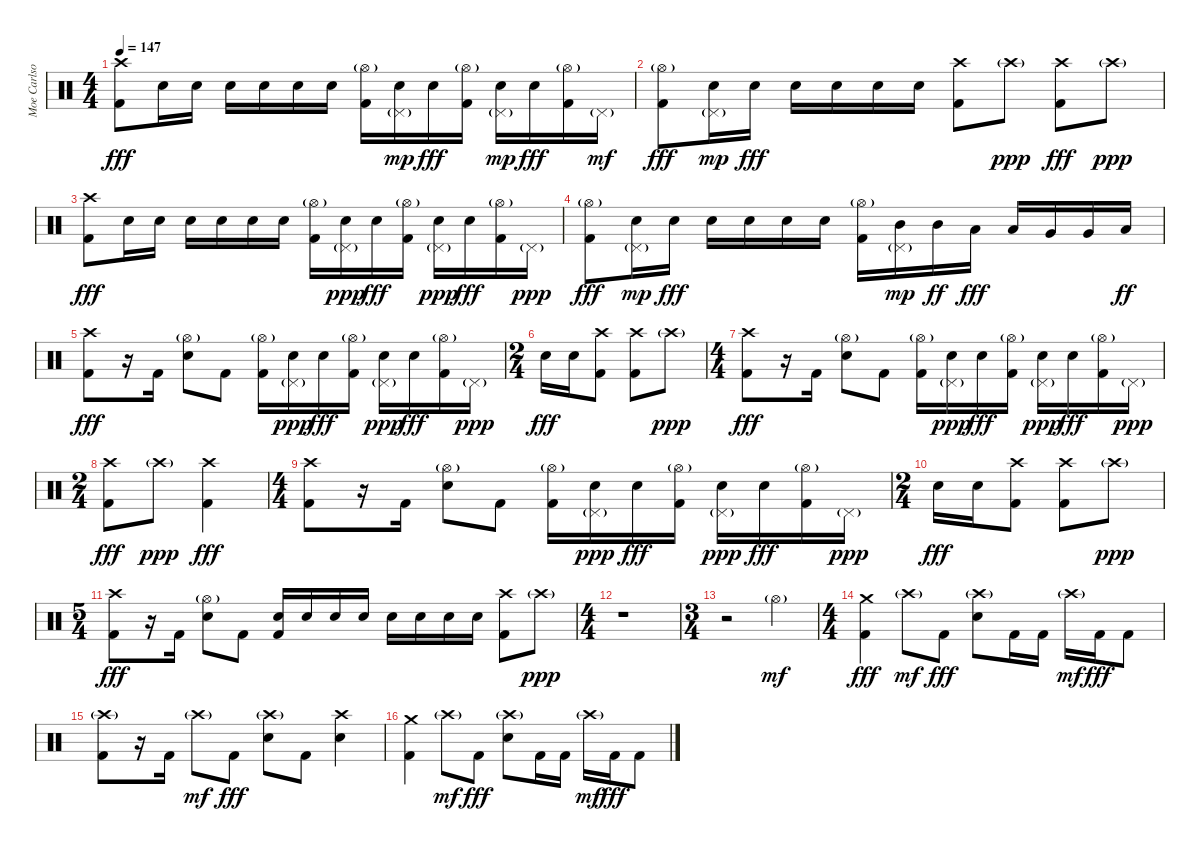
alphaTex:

\track ("Moe Carlson" "Moe Carlso") {instrument percussion}
\staff {score}
\articulation defaults
\ts (4 4)
\tempo 147
\clef neutral
\ks c
("Crash high (hit)" "Kick (hit) 2").8{dy fff} "Electric Snare (hit)".16 "Electric Snare (hit)".16 "Electric Snare (hit)".16 "Electric Snare (hit)".16 "Electric Snare (hit)".16 "Electric Snare (hit)".16 ("Hi-Hat (open)"{g} "Kick (hit) 2").16 ("Electric Snare (hit)" "Pedal Hi-Hat (hit)"{g}).16{dy mp} "Electric Snare (hit)".16{dy fff} ("Hi-Hat (open)"{g} "Kick (hit) 2").16 ("Electric Snare (hit)" "Pedal Hi-Hat (hit)"{g}).16{dy mp} "Electric Snare (hit)".16{dy fff} ("Hi-Hat (open)"{g} "Kick (hit) 2").16 "Pedal Hi-Hat (hit)"{g}.16{dy mf} |
("Hi-Hat (open)"{g} "Kick (hit) 2").8{dy fff} ("Electric Snare (hit)" "Pedal Hi-Hat (hit)"{g}).16{dy mp} "Electric Snare (hit)".16{dy fff} "Electric Snare (hit)".16 "Electric Snare (hit)".16 "Electric Snare (hit)".16 "Electric Snare (hit)".16 ("Crash high (hit)" "Kick (hit) 2").8 "Crash high (hit)"{g}.8{dy ppp} ("Crash high (hit)" "Kick (hit) 2").8{dy fff} "Crash high (hit)"{g}.8{dy ppp} |
("Crash high (hit)" "Kick (hit) 2").8{dy fff} "Electric Snare (hit)".16 "Electric Snare (hit)".16 "Electric Snare (hit)".16 "Electric Snare (hit)".16 "Electric Snare (hit)".16 "Electric Snare (hit)".16 ("Hi-Hat (open)"{g} "Kick (hit) 2").16 ("Electric Snare (hit)" "Pedal Hi-Hat (hit)"{g}).16{dy ppp} "Electric Snare (hit)".16{dy fff} ("Hi-Hat (open)"{g} "Kick (hit) 2").16 ("Electric Snare (hit)" "Pedal Hi-Hat (hit)"{g}).16{dy ppp} "Electric Snare (hit)".16{dy fff} ("Hi-Hat (open)"{g} "Kick (hit) 2").16 "Pedal Hi-Hat (hit)"{g}.16{dy ppp} |
("Hi-Hat (open)"{g} "Kick (hit) 2").8{dy fff} ("Electric Snare (hit)" "Pedal Hi-Hat (hit)"{g}).16{dy mp} "Electric Snare (hit)".16{dy fff} "Electric Snare (hit)".16 "Electric Snare (hit)".16 "Electric Snare (hit)".16 "Electric Snare (hit)".16 ("Hi-Hat (open)"{g} "Kick (hit) 2").16 ("Mid Tom (hit)" "Pedal Hi-Hat (hit)"{g}).16{dy mp} "Mid Tom (hit)".16{dy ff} "Low Tom (hit)".16{dy fff} "Low Tom (hit)".16 "Very Low Tom (hit)".16 "Very Low Tom (hit)".16 "Low Floor Tom (hit)".16{dy ff} |
("Crash high (hit)" "Kick (hit) 2").8{dy fff} r.16 "Kick (hit) 2".16 ("Hi-Hat (open)"{g} "Electric Snare (hit)").8 "Kick (hit) 2".8 ("Hi-Hat (open)"{g} "Kick (hit) 2").16 ("Electric Snare (hit)" "Pedal Hi-Hat (hit)"{g}).16{dy ppp} "Electric Snare (hit)".16{dy fff} ("Hi-Hat (open)"{g} "Kick (hit) 2").16 ("Electric Snare (hit)" "Pedal Hi-Hat (hit)"{g}).16{dy ppp} "Electric Snare (hit)".16{dy fff} ("Hi-Hat (open)"{g} "Kick (hit) 2").16 "Pedal Hi-Hat (hit)"{g}.16{dy ppp} |
\ts (2 4)
"Electric Snare (hit)".16{dy fff} "Electric Snare (hit)".16 ("Crash high (hit)" "Kick (hit) 2").8 ("Crash high (hit)" "Kick (hit) 2").8 "Crash high (hit)"{g}.8{dy ppp} |
\ts (4 4)
("Crash high (hit)" "Kick (hit) 2").8{dy fff} r.16 "Kick (hit) 2".16 ("Hi-Hat (open)"{g} "Electric Snare (hit)").8 "Kick (hit) 2".8 ("Hi-Hat (open)"{g} "Kick (hit) 2").16 ("Electric Snare (hit)" "Pedal Hi-Hat (hit)"{g}).16{dy ppp} "Electric Snare (hit)".16{dy fff} ("Hi-Hat (open)"{g} "Kick (hit) 2").16 ("Electric Snare (hit)" "Pedal Hi-Hat (hit)"{g}).16{dy ppp} "Electric Snare (hit)".16{dy fff} ("Hi-Hat (open)"{g} "Kick (hit) 2").16 "Pedal Hi-Hat (hit)"{g}.16{dy ppp} |
\ts (2 4)
("Crash high (hit)" "Kick (hit) 2").8{dy fff} "Crash high (hit)"{g}.8{dy ppp} ("Crash high (hit)" "Kick (hit) 2").4{dy fff} |
\ts (4 4)
("Crash high (hit)" "Kick (hit) 2").8 r.16 "Kick (hit) 2".16 ("Hi-Hat (open)"{g} "Electric Snare (hit)").8 "Kick (hit) 2".8 ("Hi-Hat (open)"{g} "Kick (hit) 2").16 ("Electric Snare (hit)" "Pedal Hi-Hat (hit)"{g}).16{dy ppp} "Electric Snare (hit)".16{dy fff} ("Hi-Hat (open)"{g} "Kick (hit) 2").16 ("Electric Snare (hit)" "Pedal Hi-Hat (hit)"{g}).16{dy ppp} "Electric Snare (hit)".16{dy fff} ("Hi-Hat (open)"{g} "Kick (hit) 2").16 "Pedal Hi-Hat (hit)"{g}.16{dy ppp} |
\ts (2 4)
"Electric Snare (hit)".16{dy fff} "Electric Snare (hit)".16 ("Crash high (hit)" "Kick (hit) 2").8 ("Crash high (hit)" "Kick (hit) 2").8 "Crash high (hit)"{g}.8{dy ppp} |
\ts (5 4)
("Crash high (hit)" "Kick (hit) 2").8{dy fff} r.16 "Kick (hit) 2".16 ("Hi-Hat (open)"{g} "Electric Snare (hit)").8 "Kick (hit) 2".8 ("Electric Snare (hit)" "Kick (hit) 2").16 "Electric Snare (hit)".16 "Electric Snare (hit)".16 "Electric Snare (hit)".16 "Electric Snare (hit)".16 "Electric Snare (hit)".16 "Electric Snare (hit)".16 "Electric Snare (hit)".16 ("Crash high (hit)" "Kick (hit) 2").8 "Crash high (hit)"{g}.8{dy ppp} |
\ts (4 4)
r.1 |
\ts (3 4)
r.2 "Hi-Hat (open)"{g}.4{dy mf} |
\ts (4 4)
("Crash medium (hit)" "Kick (hit) 2").4{dy fff} "Crash high (hit)"{g}.8{dy mf} "Kick (hit) 2".8{dy fff} ("Crash high (hit)"{g} "Electric Snare (hit)").8 "Kick (hit) 2".16 "Kick (hit) 2".16 "Crash high (hit)"{g}.16{dy mf} "Kick (hit) 2".16{dy fff} "Kick (hit) 2".8 |
("Crash high (hit)"{g} "Kick (hit) 2").8 r.16 "Kick (hit) 2".16 "Crash high (hit)"{g}.8{dy mf} "Kick (hit) 2".8{dy fff} ("Crash high (hit)"{g} "Electric Snare (hit)").8 "Kick (hit) 2".8 ("Crash high (hit)" "Electric Snare (hit)").4 |
("Crash medium (hit)" "Kick (hit) 2").4 "Crash high (hit)"{g}.8{dy mf} "Kick (hit) 2".8{dy fff} ("Crash high (hit)"{g} "Electric Snare (hit)").8 "Kick (hit) 2".16 "Kick (hit) 2".16 "Crash high (hit)"{g}.16{dy mf} "Kick (hit) 2".16{dy fff} "Kick (hit) 2".8
